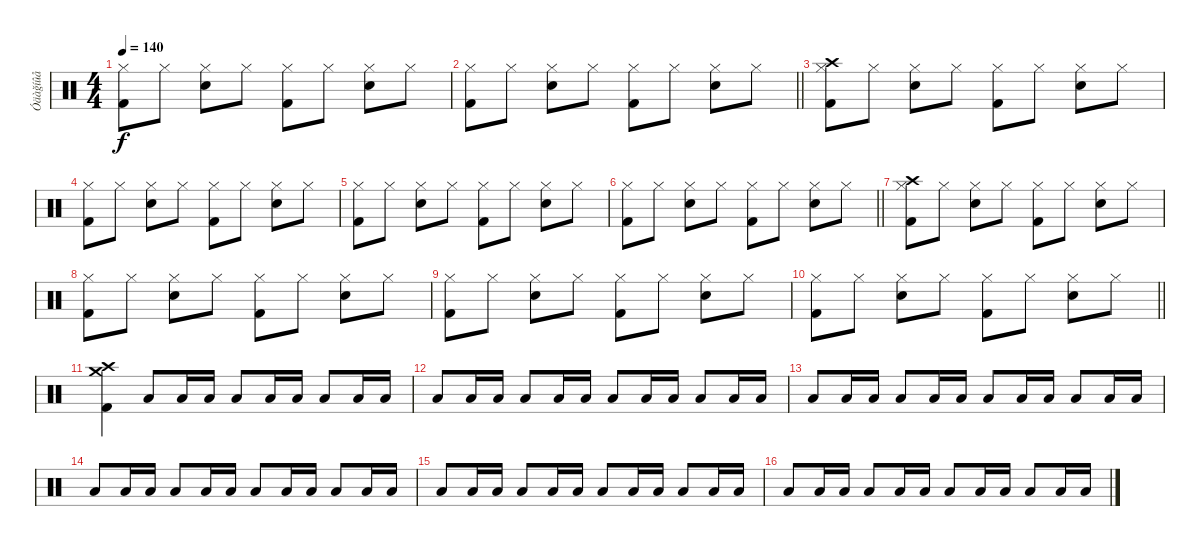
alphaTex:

\track ("Óäàğíûå" "Óäàğíûå") {instrument percussion}
\staff {score}
\articulation defaults
\ts (4 4)
\tempo 140
\clef neutral
\ks c
("Hi-Hat (closed)" "Kick (hit) 2").8{dy f} "Hi-Hat (closed)".8 ("Hi-Hat (closed)" "Snare (hit) 2").8 "Hi-Hat (closed)".8 ("Hi-Hat (closed)" "Kick (hit) 2").8 "Hi-Hat (closed)".8 ("Hi-Hat (closed)" "Snare (hit) 2").8 "Hi-Hat (closed)".8 |
\barLineRight lightlight
("Hi-Hat (closed)" "Kick (hit) 2").8 "Hi-Hat (closed)".8 ("Hi-Hat (closed)" "Snare (hit) 2").8 "Hi-Hat (closed)".8 ("Hi-Hat (closed)" "Kick (hit) 2").8 "Hi-Hat (closed)".8 ("Hi-Hat (closed)" "Snare (hit) 2").8 "Hi-Hat (closed)".8 |
("Hi-Hat (closed)" "Kick (hit) 2" "Crash high (hit)").8 "Hi-Hat (closed)".8 ("Hi-Hat (closed)" "Snare (hit) 2").8 "Hi-Hat (closed)".8 ("Hi-Hat (closed)" "Kick (hit) 2").8 "Hi-Hat (closed)".8 ("Hi-Hat (closed)" "Snare (hit) 2").8 "Hi-Hat (closed)".8 |
("Hi-Hat (closed)" "Kick (hit) 2").8 "Hi-Hat (closed)".8 ("Hi-Hat (closed)" "Snare (hit) 2").8 "Hi-Hat (closed)".8 ("Hi-Hat (closed)" "Kick (hit) 2").8 "Hi-Hat (closed)".8 ("Hi-Hat (closed)" "Snare (hit) 2").8 "Hi-Hat (closed)".8 |
("Hi-Hat (closed)" "Kick (hit) 2").8 "Hi-Hat (closed)".8 ("Hi-Hat (closed)" "Snare (hit) 2").8 "Hi-Hat (closed)".8 ("Hi-Hat (closed)" "Kick (hit) 2").8 "Hi-Hat (closed)".8 ("Hi-Hat (closed)" "Snare (hit) 2").8 "Hi-Hat (closed)".8 |
\barLineRight lightlight
("Hi-Hat (closed)" "Kick (hit) 2").8 "Hi-Hat (closed)".8 ("Hi-Hat (closed)" "Snare (hit) 2").8 "Hi-Hat (closed)".8 ("Hi-Hat (closed)" "Kick (hit) 2").8 "Hi-Hat (closed)".8 ("Hi-Hat (closed)" "Snare (hit) 2").8 "Hi-Hat (closed)".8 |
("Hi-Hat (closed)" "Kick (hit) 2" "Crash high (hit)").8 "Hi-Hat (closed)".8 ("Hi-Hat (closed)" "Snare (hit) 2").8 "Hi-Hat (closed)".8 ("Hi-Hat (closed)" "Kick (hit) 2").8 "Hi-Hat (closed)".8 ("Hi-Hat (closed)" "Snare (hit) 2").8 "Hi-Hat (closed)".8 |
("Hi-Hat (closed)" "Kick (hit) 2").8 "Hi-Hat (closed)".8 ("Hi-Hat (closed)" "Snare (hit) 2").8 "Hi-Hat (closed)".8 ("Hi-Hat (closed)" "Kick (hit) 2").8 "Hi-Hat (closed)".8 ("Hi-Hat (closed)" "Snare (hit) 2").8 "Hi-Hat (closed)".8 |
("Hi-Hat (closed)" "Kick (hit) 2").8 "Hi-Hat (closed)".8 ("Hi-Hat (closed)" "Snare (hit) 2").8 "Hi-Hat (closed)".8 ("Hi-Hat (closed)" "Kick (hit) 2").8 "Hi-Hat (closed)".8 ("Hi-Hat (closed)" "Snare (hit) 2").8 "Hi-Hat (closed)".8 |
\barLineRight lightlight
("Hi-Hat (closed)" "Kick (hit) 2").8 "Hi-Hat (closed)".8 ("Hi-Hat (closed)" "Snare (hit) 2").8 "Hi-Hat (closed)".8 ("Hi-Hat (closed)" "Kick (hit) 2").8 "Hi-Hat (closed)".8 ("Hi-Hat (closed)" "Snare (hit) 2").8 "Hi-Hat (closed)".8 |
("Crash high (hit)" "Kick (hit) 2" "Crash medium (hit)").4 "Low Tom (hit)".8 "Low Tom (hit)".16 "Low Tom (hit)".16 "Low Tom (hit)".8 "Low Tom (hit)".16 "Low Tom (hit)".16 "Low Tom (hit)".8 "Low Tom (hit)".16 "Low Tom (hit)".16 |
"Low Tom (hit)".8 "Low Tom (hit)".16 "Low Tom (hit)".16 "Low Tom (hit)".8 "Low Tom (hit)".16 "Low Tom (hit)".16 "Low Tom (hit)".8 "Low Tom (hit)".16 "Low Tom (hit)".16 "Low Tom (hit)".8 "Low Tom (hit)".16 "Low Tom (hit)".16 |
"Low Tom (hit)".8 "Low Tom (hit)".16 "Low Tom (hit)".16 "Low Tom (hit)".8 "Low Tom (hit)".16 "Low Tom (hit)".16 "Low Tom (hit)".8 "Low Tom (hit)".16 "Low Tom (hit)".16 "Low Tom (hit)".8 "Low Tom (hit)".16 "Low Tom (hit)".16 |
"Low Tom (hit)".8 "Low Tom (hit)".16 "Low Tom (hit)".16 "Low Tom (hit)".8 "Low Tom (hit)".16 "Low Tom (hit)".16 "Low Tom (hit)".8 "Low Tom (hit)".16 "Low Tom (hit)".16 "Low Tom (hit)".8 "Low Tom (hit)".16 "Low Tom (hit)".16 |
"Low Tom (hit)".8 "Low Tom (hit)".16 "Low Tom (hit)".16 "Low Tom (hit)".8 "Low Tom (hit)".16 "Low Tom (hit)".16 "Low Tom (hit)".8 "Low Tom (hit)".16 "Low Tom (hit)".16 "Low Tom (hit)".8 "Low Tom (hit)".16 "Low Tom (hit)".16 |
"Low Tom (hit)".8 "Low Tom (hit)".16 "Low Tom (hit)".16 "Low Tom (hit)".8 "Low Tom (hit)".16 "Low Tom (hit)".16 "Low Tom (hit)".8 "Low Tom (hit)".16 "Low Tom (hit)".16 "Low Tom (hit)".8 "Low Tom (hit)".16 "Low Tom (hit)".16
